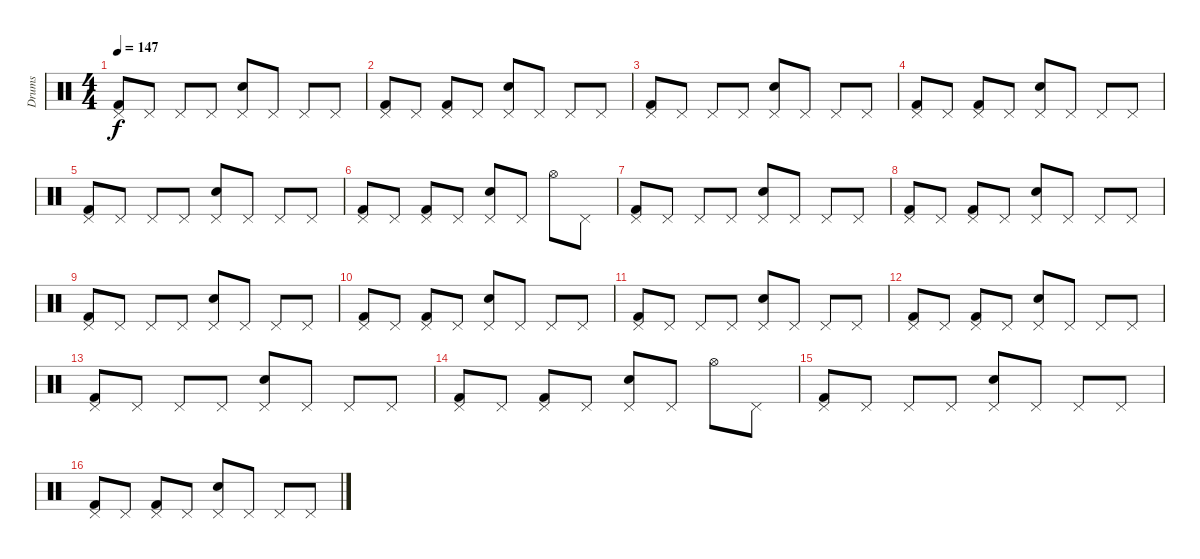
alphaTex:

\track ("Drums" "Drums") {instrument percussion}
\staff {score}
\articulation defaults
\ts (4 4)
\tempo 147
\clef neutral
\ks c
("Kick (hit) 2" "Pedal Hi-Hat (hit)").8{dy f} "Pedal Hi-Hat (hit)".8 "Pedal Hi-Hat (hit)".8 "Pedal Hi-Hat (hit)".8 ("Electric Snare (hit)" "Pedal Hi-Hat (hit)").8 "Pedal Hi-Hat (hit)".8 "Pedal Hi-Hat (hit)".8 "Pedal Hi-Hat (hit)".8 |
("Kick (hit) 2" "Pedal Hi-Hat (hit)").8 "Pedal Hi-Hat (hit)".8 ("Kick (hit) 2" "Pedal Hi-Hat (hit)").8 "Pedal Hi-Hat (hit)".8 ("Electric Snare (hit)" "Pedal Hi-Hat (hit)").8 "Pedal Hi-Hat (hit)".8 "Pedal Hi-Hat (hit)".8 "Pedal Hi-Hat (hit)".8 |
("Kick (hit) 2" "Pedal Hi-Hat (hit)").8 "Pedal Hi-Hat (hit)".8 "Pedal Hi-Hat (hit)".8 "Pedal Hi-Hat (hit)".8 ("Electric Snare (hit)" "Pedal Hi-Hat (hit)").8 "Pedal Hi-Hat (hit)".8 "Pedal Hi-Hat (hit)".8 "Pedal Hi-Hat (hit)".8 |
("Kick (hit) 2" "Pedal Hi-Hat (hit)").8 "Pedal Hi-Hat (hit)".8 ("Kick (hit) 2" "Pedal Hi-Hat (hit)").8 "Pedal Hi-Hat (hit)".8 ("Electric Snare (hit)" "Pedal Hi-Hat (hit)").8 "Pedal Hi-Hat (hit)".8 "Pedal Hi-Hat (hit)".8 "Pedal Hi-Hat (hit)".8 |
("Kick (hit) 2" "Pedal Hi-Hat (hit)").8 "Pedal Hi-Hat (hit)".8 "Pedal Hi-Hat (hit)".8 "Pedal Hi-Hat (hit)".8 ("Electric Snare (hit)" "Pedal Hi-Hat (hit)").8 "Pedal Hi-Hat (hit)".8 "Pedal Hi-Hat (hit)".8 "Pedal Hi-Hat (hit)".8 |
("Kick (hit) 2" "Pedal Hi-Hat (hit)").8 "Pedal Hi-Hat (hit)".8 ("Kick (hit) 2" "Pedal Hi-Hat (hit)").8 "Pedal Hi-Hat (hit)".8 ("Electric Snare (hit)" "Pedal Hi-Hat (hit)").8 "Pedal Hi-Hat (hit)".8 "Hi-Hat (open)".8 "Pedal Hi-Hat (hit)".8 |
("Kick (hit) 2" "Pedal Hi-Hat (hit)").8 "Pedal Hi-Hat (hit)".8 "Pedal Hi-Hat (hit)".8 "Pedal Hi-Hat (hit)".8 ("Electric Snare (hit)" "Pedal Hi-Hat (hit)").8 "Pedal Hi-Hat (hit)".8 "Pedal Hi-Hat (hit)".8 "Pedal Hi-Hat (hit)".8 |
("Kick (hit) 2" "Pedal Hi-Hat (hit)").8 "Pedal Hi-Hat (hit)".8 ("Kick (hit) 2" "Pedal Hi-Hat (hit)").8 "Pedal Hi-Hat (hit)".8 ("Electric Snare (hit)" "Pedal Hi-Hat (hit)").8 "Pedal Hi-Hat (hit)".8 "Pedal Hi-Hat (hit)".8 "Pedal Hi-Hat (hit)".8 |
("Kick (hit) 2" "Pedal Hi-Hat (hit)").8 "Pedal Hi-Hat (hit)".8 "Pedal Hi-Hat (hit)".8 "Pedal Hi-Hat (hit)".8 ("Electric Snare (hit)" "Pedal Hi-Hat (hit)").8 "Pedal Hi-Hat (hit)".8 "Pedal Hi-Hat (hit)".8 "Pedal Hi-Hat (hit)".8 |
("Kick (hit) 2" "Pedal Hi-Hat (hit)").8 "Pedal Hi-Hat (hit)".8 ("Kick (hit) 2" "Pedal Hi-Hat (hit)").8 "Pedal Hi-Hat (hit)".8 ("Electric Snare (hit)" "Pedal Hi-Hat (hit)").8 "Pedal Hi-Hat (hit)".8 "Pedal Hi-Hat (hit)".8 "Pedal Hi-Hat (hit)".8 |
("Kick (hit) 2" "Pedal Hi-Hat (hit)").8 "Pedal Hi-Hat (hit)".8 "Pedal Hi-Hat (hit)".8 "Pedal Hi-Hat (hit)".8 ("Electric Snare (hit)" "Pedal Hi-Hat (hit)").8 "Pedal Hi-Hat (hit)".8 "Pedal Hi-Hat (hit)".8 "Pedal Hi-Hat (hit)".8 |
("Kick (hit) 2" "Pedal Hi-Hat (hit)").8 "Pedal Hi-Hat (hit)".8 ("Kick (hit) 2" "Pedal Hi-Hat (hit)").8 "Pedal Hi-Hat (hit)".8 ("Electric Snare (hit)" "Pedal Hi-Hat (hit)").8 "Pedal Hi-Hat (hit)".8 "Pedal Hi-Hat (hit)".8 "Pedal Hi-Hat (hit)".8 |
("Kick (hit) 2" "Pedal Hi-Hat (hit)").8 "Pedal Hi-Hat (hit)".8 "Pedal Hi-Hat (hit)".8 "Pedal Hi-Hat (hit)".8 ("Electric Snare (hit)" "Pedal Hi-Hat (hit)").8 "Pedal Hi-Hat (hit)".8 "Pedal Hi-Hat (hit)".8 "Pedal Hi-Hat (hit)".8 |
("Kick (hit) 2" "Pedal Hi-Hat (hit)").8 "Pedal Hi-Hat (hit)".8 ("Kick (hit) 2" "Pedal Hi-Hat (hit)").8 "Pedal Hi-Hat (hit)".8 ("Electric Snare (hit)" "Pedal Hi-Hat (hit)").8 "Pedal Hi-Hat (hit)".8 "Hi-Hat (open)".8 "Pedal Hi-Hat (hit)".8 |
("Kick (hit) 2" "Pedal Hi-Hat (hit)").8 "Pedal Hi-Hat (hit)".8 "Pedal Hi-Hat (hit)".8 "Pedal Hi-Hat (hit)".8 ("Electric Snare (hit)" "Pedal Hi-Hat (hit)").8 "Pedal Hi-Hat (hit)".8 "Pedal Hi-Hat (hit)".8 "Pedal Hi-Hat (hit)".8 |
("Kick (hit) 2" "Pedal Hi-Hat (hit)").8 "Pedal Hi-Hat (hit)".8 ("Kick (hit) 2" "Pedal Hi-Hat (hit)").8 "Pedal Hi-Hat (hit)".8 ("Electric Snare (hit)" "Pedal Hi-Hat (hit)").8 "Pedal Hi-Hat (hit)".8 "Pedal Hi-Hat (hit)".8 "Pedal Hi-Hat (hit)".8
